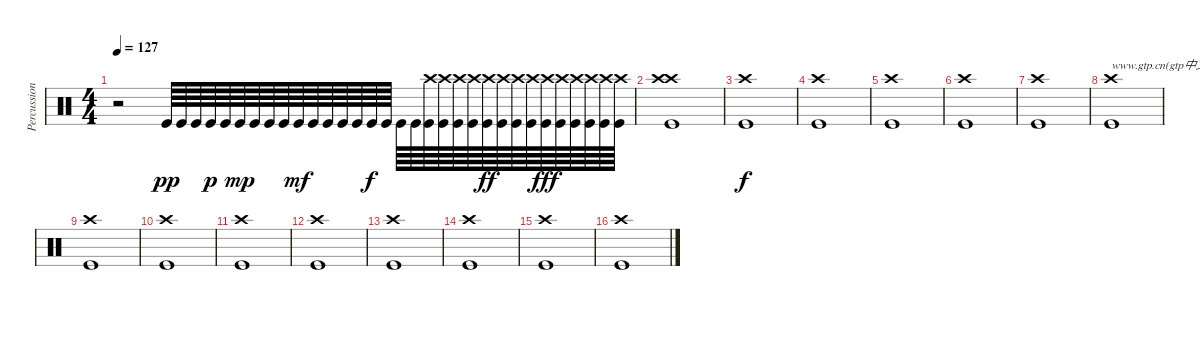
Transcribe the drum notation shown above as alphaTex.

\track ("Percussion" "Percussion") {instrument percussion}
\staff {score}
\articulation defaults
\ts (4 4)
\tempo 127
\clef neutral
\ks c
r.2{dy pp} "Kick (hit)".64 "Kick (hit)".64 "Kick (hit)".64 "Kick (hit)".64{dy p} "Kick (hit)".64 "Kick (hit)".64{dy mp} "Kick (hit)".64 "Kick (hit)".64 "Kick (hit)".64 "Kick (hit)".64{dy mf} "Kick (hit)".64 "Kick (hit)".64 "Kick (hit)".64 "Kick (hit)".64 "Kick (hit)".64{dy f} "Kick (hit)".64 "Kick (hit)".64 "Kick (hit)".64 ("Crash high (hit)" "Kick (hit)").64 ("Crash high (hit)" "Kick (hit)").64 ("Crash high (hit)" "Kick (hit)").64 ("Crash high (hit)" "Kick (hit)").64 ("Crash high (hit)" "Kick (hit)").64{dy ff} ("Crash high (hit)" "Kick (hit)").64 ("Crash high (hit)" "Kick (hit)").64 ("Crash high (hit)" "Kick (hit)").64 ("Crash high (hit)" "Kick (hit)").64{dy fff} ("Crash high (hit)" "Kick (hit)").64 ("Crash high (hit)" "Kick (hit)").64 ("Crash high (hit)" "Kick (hit)").64 ("Crash high (hit)" "Kick (hit)").64 ("Crash high (hit)" "Kick (hit)").64 |
("Crash high (hit)" "Crash high (hit)" "Kick (hit)").1 |
("Crash high (hit)" "Kick (hit)").1{dy f} |
("Crash high (hit)" "Kick (hit)").1 |
("Crash high (hit)" "Kick (hit)").1 |
("Crash high (hit)" "Kick (hit)").1 |
("Crash high (hit)" "Kick (hit)").1 |
("Crash high (hit)" "Kick (hit)").1{txt "www.gtp.cn(gtp中文网)为您提供优秀的GTP!"} |
("Crash high (hit)" "Kick (hit)").1 |
("Crash high (hit)" "Kick (hit)").1 |
("Crash high (hit)" "Kick (hit)").1 |
("Crash high (hit)" "Kick (hit)").1 |
("Crash high (hit)" "Kick (hit)").1 |
("Crash high (hit)" "Kick (hit)").1 |
("Crash high (hit)" "Kick (hit)").1 |
("Crash high (hit)" "Kick (hit)").1
